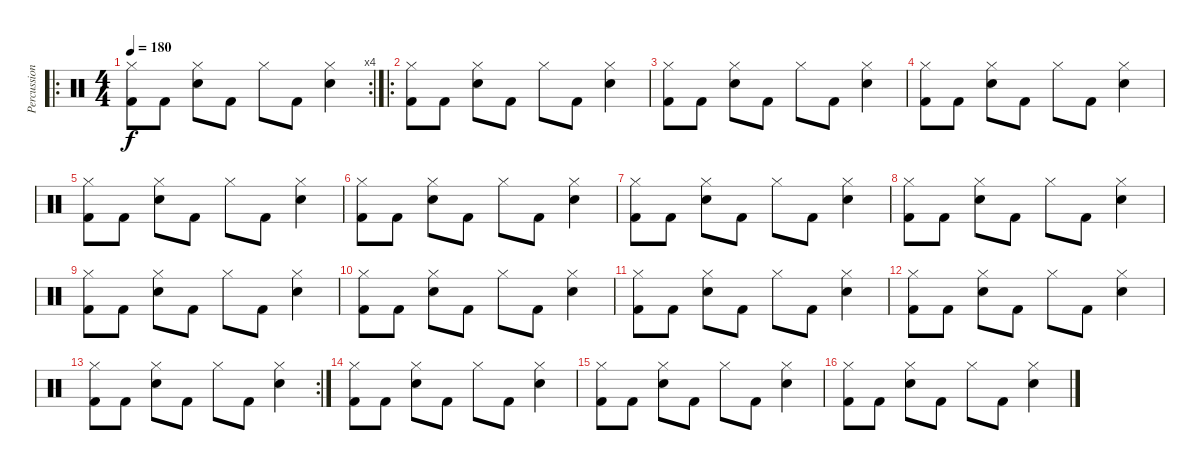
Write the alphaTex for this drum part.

\track ("Percussions" "Percussion") {instrument percussion}
\staff {score}
\articulation defaults
\ro
\rc 4
\ts (4 4)
\tempo 180
\clef neutral
\ks c
("Hi-Hat (closed)" "Kick (hit) 2").8{dy f} "Kick (hit) 2".8 ("Hi-Hat (closed)" "Snare (hit) 2").8 "Kick (hit) 2".8 "Hi-Hat (closed)".8 "Kick (hit) 2".8 ("Hi-Hat (closed)" "Snare (hit) 2").4 |
\ro
("Hi-Hat (closed)" "Kick (hit) 2").8 "Kick (hit) 2".8 ("Hi-Hat (closed)" "Snare (hit) 2").8 "Kick (hit) 2".8 "Hi-Hat (closed)".8 "Kick (hit) 2".8 ("Hi-Hat (closed)" "Snare (hit) 2").4 |
("Hi-Hat (closed)" "Kick (hit) 2").8 "Kick (hit) 2".8 ("Hi-Hat (closed)" "Snare (hit) 2").8 "Kick (hit) 2".8 "Hi-Hat (closed)".8 "Kick (hit) 2".8 ("Hi-Hat (closed)" "Snare (hit) 2").4 |
("Hi-Hat (closed)" "Kick (hit) 2").8 "Kick (hit) 2".8 ("Hi-Hat (closed)" "Snare (hit) 2").8 "Kick (hit) 2".8 "Hi-Hat (closed)".8 "Kick (hit) 2".8 ("Hi-Hat (closed)" "Snare (hit) 2").4 |
("Hi-Hat (closed)" "Kick (hit) 2").8 "Kick (hit) 2".8 ("Hi-Hat (closed)" "Snare (hit) 2").8 "Kick (hit) 2".8 "Hi-Hat (closed)".8 "Kick (hit) 2".8 ("Hi-Hat (closed)" "Snare (hit) 2").4 |
("Hi-Hat (closed)" "Kick (hit) 2").8 "Kick (hit) 2".8 ("Hi-Hat (closed)" "Snare (hit) 2").8 "Kick (hit) 2".8 "Hi-Hat (closed)".8 "Kick (hit) 2".8 ("Hi-Hat (closed)" "Snare (hit) 2").4 |
("Hi-Hat (closed)" "Kick (hit) 2").8 "Kick (hit) 2".8 ("Hi-Hat (closed)" "Snare (hit) 2").8 "Kick (hit) 2".8 "Hi-Hat (closed)".8 "Kick (hit) 2".8 ("Hi-Hat (closed)" "Snare (hit) 2").4 |
("Hi-Hat (closed)" "Kick (hit) 2").8 "Kick (hit) 2".8 ("Hi-Hat (closed)" "Snare (hit) 2").8 "Kick (hit) 2".8 "Hi-Hat (closed)".8 "Kick (hit) 2".8 ("Hi-Hat (closed)" "Snare (hit) 2").4 |
("Hi-Hat (closed)" "Kick (hit) 2").8 "Kick (hit) 2".8 ("Hi-Hat (closed)" "Snare (hit) 2").8 "Kick (hit) 2".8 "Hi-Hat (closed)".8 "Kick (hit) 2".8 ("Hi-Hat (closed)" "Snare (hit) 2").4 |
("Hi-Hat (closed)" "Kick (hit) 2").8 "Kick (hit) 2".8 ("Hi-Hat (closed)" "Snare (hit) 2").8 "Kick (hit) 2".8 "Hi-Hat (closed)".8 "Kick (hit) 2".8 ("Hi-Hat (closed)" "Snare (hit) 2").4 |
("Hi-Hat (closed)" "Kick (hit) 2").8 "Kick (hit) 2".8 ("Hi-Hat (closed)" "Snare (hit) 2").8 "Kick (hit) 2".8 "Hi-Hat (closed)".8 "Kick (hit) 2".8 ("Hi-Hat (closed)" "Snare (hit) 2").4 |
("Hi-Hat (closed)" "Kick (hit) 2").8 "Kick (hit) 2".8 ("Hi-Hat (closed)" "Snare (hit) 2").8 "Kick (hit) 2".8 "Hi-Hat (closed)".8 "Kick (hit) 2".8 ("Hi-Hat (closed)" "Snare (hit) 2").4 |
\rc 2
("Hi-Hat (closed)" "Kick (hit) 2").8 "Kick (hit) 2".8 ("Hi-Hat (closed)" "Snare (hit) 2").8 "Kick (hit) 2".8 "Hi-Hat (closed)".8 "Kick (hit) 2".8 ("Hi-Hat (closed)" "Snare (hit) 2").4 |
("Hi-Hat (closed)" "Kick (hit) 2").8 "Kick (hit) 2".8 ("Hi-Hat (closed)" "Snare (hit) 2").8 "Kick (hit) 2".8 "Hi-Hat (closed)".8 "Kick (hit) 2".8 ("Hi-Hat (closed)" "Snare (hit) 2").4 |
("Hi-Hat (closed)" "Kick (hit) 2").8 "Kick (hit) 2".8 ("Hi-Hat (closed)" "Snare (hit) 2").8 "Kick (hit) 2".8 "Hi-Hat (closed)".8 "Kick (hit) 2".8 ("Hi-Hat (closed)" "Snare (hit) 2").4 |
("Hi-Hat (closed)" "Kick (hit) 2").8 "Kick (hit) 2".8 ("Hi-Hat (closed)" "Snare (hit) 2").8 "Kick (hit) 2".8 "Hi-Hat (closed)".8 "Kick (hit) 2".8 ("Hi-Hat (closed)" "Snare (hit) 2").4
